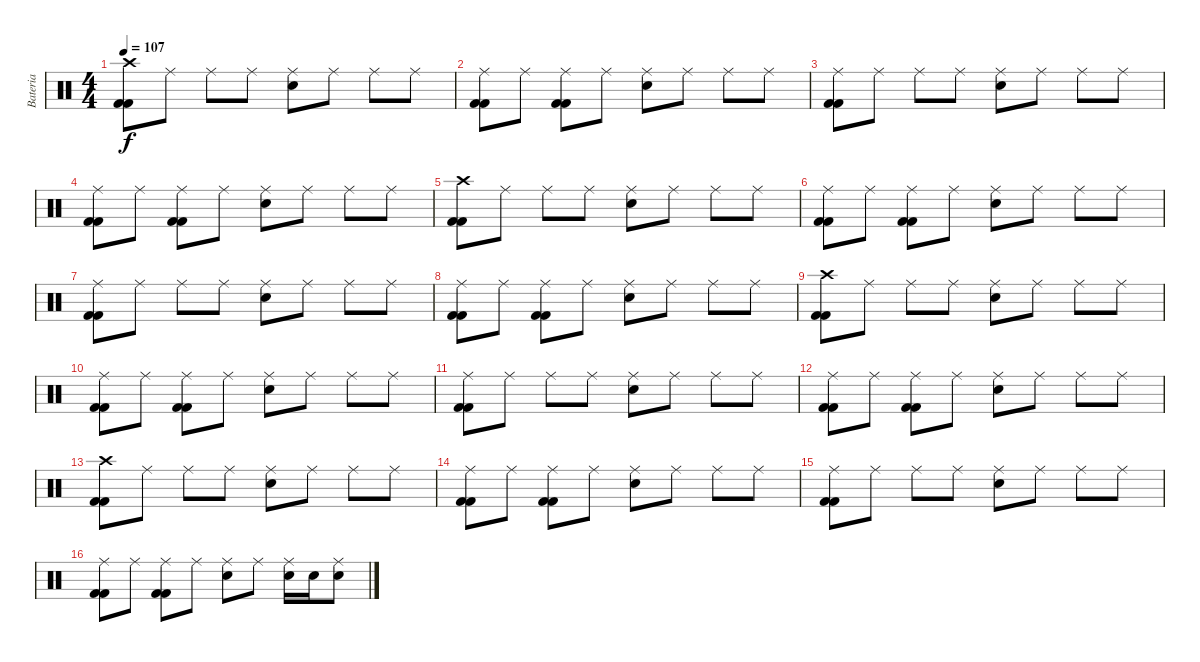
\track ("Bateria" "Bateria") {instrument percussion}
\staff {score}
\articulation defaults
\ts (4 4)
\tempo 107
\clef neutral
\ks c
("Kick (hit) 2" "Kick (hit) 2" "Crash high (hit)").8{dy f} "Ride (middle)".8 "Ride (middle)".8 "Ride (middle)".8 ("Snare (hit) 2" "Ride (middle)").8 "Ride (middle)".8 "Ride (middle)".8 "Ride (middle)".8 |
("Kick (hit) 2" "Kick (hit) 2" "Ride (middle)").8 "Ride (middle)".8 ("Kick (hit) 2" "Kick (hit) 2" "Ride (middle)").8 "Ride (middle)".8 ("Snare (hit) 2" "Ride (middle)").8 "Ride (middle)".8 "Ride (middle)".8 "Ride (middle)".8 |
("Kick (hit) 2" "Kick (hit) 2" "Ride (middle)").8 "Ride (middle)".8 "Ride (middle)".8 "Ride (middle)".8 ("Snare (hit) 2" "Ride (middle)").8 "Ride (middle)".8 "Ride (middle)".8 "Ride (middle)".8 |
("Kick (hit) 2" "Kick (hit) 2" "Ride (middle)").8 "Ride (middle)".8 ("Kick (hit) 2" "Kick (hit) 2" "Ride (middle)").8 "Ride (middle)".8 ("Snare (hit) 2" "Ride (middle)").8 "Ride (middle)".8 "Ride (middle)".8 "Ride (middle)".8 |
("Kick (hit) 2" "Kick (hit) 2" "Crash high (hit)").8 "Ride (middle)".8 "Ride (middle)".8 "Ride (middle)".8 ("Snare (hit) 2" "Ride (middle)").8 "Ride (middle)".8 "Ride (middle)".8 "Ride (middle)".8 |
("Kick (hit) 2" "Kick (hit) 2" "Ride (middle)").8 "Ride (middle)".8 ("Kick (hit) 2" "Kick (hit) 2" "Ride (middle)").8 "Ride (middle)".8 ("Snare (hit) 2" "Ride (middle)").8 "Ride (middle)".8 "Ride (middle)".8 "Ride (middle)".8 |
("Kick (hit) 2" "Kick (hit) 2" "Ride (middle)").8 "Ride (middle)".8 "Ride (middle)".8 "Ride (middle)".8 ("Snare (hit) 2" "Ride (middle)").8 "Ride (middle)".8 "Ride (middle)".8 "Ride (middle)".8 |
("Kick (hit) 2" "Kick (hit) 2" "Ride (middle)").8 "Ride (middle)".8 ("Kick (hit) 2" "Kick (hit) 2" "Ride (middle)").8 "Ride (middle)".8 ("Snare (hit) 2" "Ride (middle)").8 "Ride (middle)".8 "Ride (middle)".8 "Ride (middle)".8 |
("Kick (hit) 2" "Kick (hit) 2" "Crash high (hit)").8 "Ride (middle)".8 "Ride (middle)".8 "Ride (middle)".8 ("Snare (hit) 2" "Ride (middle)").8 "Ride (middle)".8 "Ride (middle)".8 "Ride (middle)".8 |
("Kick (hit) 2" "Kick (hit) 2" "Ride (middle)").8 "Ride (middle)".8 ("Kick (hit) 2" "Kick (hit) 2" "Ride (middle)").8 "Ride (middle)".8 ("Snare (hit) 2" "Ride (middle)").8 "Ride (middle)".8 "Ride (middle)".8 "Ride (middle)".8 |
("Kick (hit) 2" "Kick (hit) 2" "Ride (middle)").8 "Ride (middle)".8 "Ride (middle)".8 "Ride (middle)".8 ("Snare (hit) 2" "Ride (middle)").8 "Ride (middle)".8 "Ride (middle)".8 "Ride (middle)".8 |
("Kick (hit) 2" "Kick (hit) 2" "Ride (middle)").8 "Ride (middle)".8 ("Kick (hit) 2" "Kick (hit) 2" "Ride (middle)").8 "Ride (middle)".8 ("Snare (hit) 2" "Ride (middle)").8 "Ride (middle)".8 "Ride (middle)".8 "Ride (middle)".8 |
("Kick (hit) 2" "Kick (hit) 2" "Crash high (hit)").8 "Ride (middle)".8 "Ride (middle)".8 "Ride (middle)".8 ("Snare (hit) 2" "Ride (middle)").8 "Ride (middle)".8 "Ride (middle)".8 "Ride (middle)".8 |
("Kick (hit) 2" "Kick (hit) 2" "Ride (middle)").8 "Ride (middle)".8 ("Kick (hit) 2" "Kick (hit) 2" "Ride (middle)").8 "Ride (middle)".8 ("Snare (hit) 2" "Ride (middle)").8 "Ride (middle)".8 "Ride (middle)".8 "Ride (middle)".8 |
("Kick (hit) 2" "Kick (hit) 2" "Ride (middle)").8 "Ride (middle)".8 "Ride (middle)".8 "Ride (middle)".8 ("Snare (hit) 2" "Ride (middle)").8 "Ride (middle)".8 "Ride (middle)".8 "Ride (middle)".8 |
("Kick (hit) 2" "Kick (hit) 2" "Ride (middle)").8 "Ride (middle)".8 ("Kick (hit) 2" "Kick (hit) 2" "Ride (middle)").8 "Ride (middle)".8 ("Snare (hit) 2" "Ride (middle)").8 "Ride (middle)".8 ("Snare (hit) 2" "Ride (middle)").16 "Snare (hit) 2".16 ("Snare (hit) 2" "Ride (middle)").8
